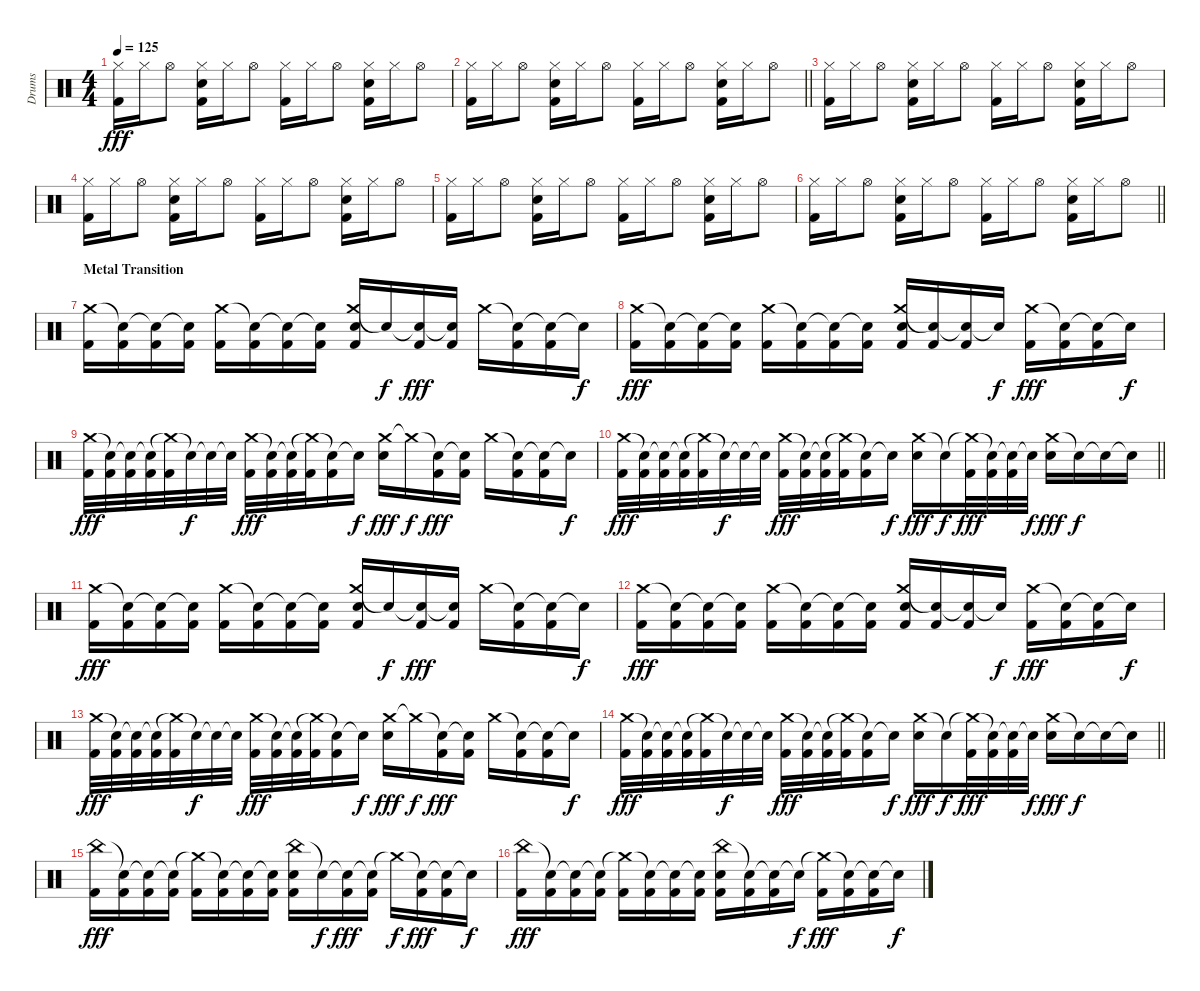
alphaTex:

\track ("Drums" "Drums") {instrument percussion}
\staff {score}
\articulation defaults
\ts (4 4)
\tempo 125
\clef neutral
\ks c
("Hi-Hat (closed)" "Kick (hit) 2").16{dy fff} "Hi-Hat (closed)".16 "Hi-Hat (open)".8 ("Hi-Hat (closed)" "Hand Clap (hit)" "Kick (hit) 2").16 "Hi-Hat (closed)".16 "Hi-Hat (open)".8 ("Hi-Hat (closed)" "Kick (hit) 2").16 "Hi-Hat (closed)".16 "Hi-Hat (open)".8 ("Hi-Hat (closed)" "Hand Clap (hit)" "Kick (hit) 2").16 "Hi-Hat (closed)".16 "Hi-Hat (open)".8 |
\barLineRight lightlight
("Hi-Hat (closed)" "Kick (hit) 2").16 "Hi-Hat (closed)".16 "Hi-Hat (open)".8 ("Hi-Hat (closed)" "Hand Clap (hit)" "Kick (hit) 2").16 "Hi-Hat (closed)".16 "Hi-Hat (open)".8 ("Hi-Hat (closed)" "Kick (hit) 2").16 "Hi-Hat (closed)".16 "Hi-Hat (open)".8 ("Hi-Hat (closed)" "Hand Clap (hit)" "Kick (hit) 2").16 "Hi-Hat (closed)".16 "Hi-Hat (open)".8 |
("Hi-Hat (closed)" "Kick (hit) 2").16 "Hi-Hat (closed)".16 "Hi-Hat (open)".8 ("Hi-Hat (closed)" "Hand Clap (hit)" "Kick (hit) 2").16 "Hi-Hat (closed)".16 "Hi-Hat (open)".8 ("Hi-Hat (closed)" "Kick (hit) 2").16 "Hi-Hat (closed)".16 "Hi-Hat (open)".8 ("Hi-Hat (closed)" "Hand Clap (hit)" "Kick (hit) 2").16 "Hi-Hat (closed)".16 "Hi-Hat (open)".8 |
("Hi-Hat (closed)" "Kick (hit) 2").16 "Hi-Hat (closed)".16 "Hi-Hat (open)".8 ("Hi-Hat (closed)" "Hand Clap (hit)" "Kick (hit) 2").16 "Hi-Hat (closed)".16 "Hi-Hat (open)".8 ("Hi-Hat (closed)" "Kick (hit) 2").16 "Hi-Hat (closed)".16 "Hi-Hat (open)".8 ("Hi-Hat (closed)" "Hand Clap (hit)" "Kick (hit) 2").16 "Hi-Hat (closed)".16 "Hi-Hat (open)".8 |
("Hi-Hat (closed)" "Kick (hit) 2").16 "Hi-Hat (closed)".16 "Hi-Hat (open)".8 ("Hi-Hat (closed)" "Hand Clap (hit)" "Kick (hit) 2").16 "Hi-Hat (closed)".16 "Hi-Hat (open)".8 ("Hi-Hat (closed)" "Kick (hit) 2").16 "Hi-Hat (closed)".16 "Hi-Hat (open)".8 ("Hi-Hat (closed)" "Hand Clap (hit)" "Kick (hit) 2").16 "Hi-Hat (closed)".16 "Hi-Hat (open)".8 |
\barLineRight lightlight
("Hi-Hat (closed)" "Kick (hit) 2").16 "Hi-Hat (closed)".16 "Hi-Hat (open)".8 ("Hi-Hat (closed)" "Hand Clap (hit)" "Kick (hit) 2").16 "Hi-Hat (closed)".16 "Hi-Hat (open)".8 ("Hi-Hat (closed)" "Kick (hit) 2").16 "Hi-Hat (closed)".16 "Hi-Hat (open)".8 ("Hi-Hat (closed)" "Hand Clap (hit)" "Kick (hit) 2").16 "Hi-Hat (closed)".16 "Hi-Hat (open)".8 |
\section ("" "Metal Transition")
("Crash medium (hit)" "Kick (hit) 2").16 ("Snare (hit)"{t} "Kick (hit) 2").16 ("Snare (hit)"{t} "Kick (hit) 2").16 ("Snare (hit)"{t} "Kick (hit) 2").16 ("Crash medium (hit)" "Kick (hit) 2").16 ("Snare (hit)"{t} "Kick (hit) 2").16 ("Snare (hit)"{t} "Kick (hit) 2").16 ("Snare (hit)"{t} "Kick (hit) 2").16 ("Crash medium (hit)" "Electric Snare (hit)" "Kick (hit) 2").16 "Snare (hit)"{t}.16{dy f} ("Snare (hit)"{t} "Kick (hit) 2").16{dy fff} ("Snare (hit)"{t} "Kick (hit) 2").16 "Crash medium (hit)".16 ("Snare (hit)"{t} "Kick (hit) 2").16 ("Snare (hit)"{t} "Kick (hit) 2").16 "Snare (hit)"{t}.16{dy f} |
("Crash medium (hit)" "Kick (hit) 2").16{dy fff} ("Snare (hit)"{t} "Kick (hit) 2").16 ("Snare (hit)"{t} "Kick (hit) 2").16 ("Snare (hit)"{t} "Kick (hit) 2").16 ("Crash medium (hit)" "Kick (hit) 2").16 ("Snare (hit)"{t} "Kick (hit) 2").16 ("Snare (hit)"{t} "Kick (hit) 2").16 ("Snare (hit)"{t} "Kick (hit) 2").16 ("Crash medium (hit)" "Electric Snare (hit)" "Kick (hit) 2").16 ("Snare (hit)"{t} "Kick (hit) 2").16 ("Snare (hit)"{t} "Kick (hit) 2").16 "Snare (hit)"{t}.16{dy f} ("Crash medium (hit)" "Kick (hit) 2").16{dy fff} ("Snare (hit)"{t} "Kick (hit) 2").16 ("Snare (hit)"{t} "Kick (hit) 2").16 "Snare (hit)"{t}.16{dy f} |
("Crash medium (hit)" "Kick (hit) 2").32{dy fff} ("Snare (hit)"{t} "Kick (hit) 2").32 ("Snare (hit)"{t} "Kick (hit) 2").32 ("Snare (hit)"{t} "Kick (hit) 2").32 ("Crash medium (hit)"{t} "Kick (hit) 2").32 "Snare (hit)"{t}.32{dy f} "Snare (hit)"{t}.32 "Snare (hit)"{t}.32 ("Crash medium (hit)" "Kick (hit) 2").32{dy fff} ("Snare (hit)"{t} "Kick (hit) 2").32 ("Snare (hit)"{t} "Kick (hit) 2").32 ("Crash medium (hit)"{t} "Kick (hit) 2").32 ("Snare (hit)"{t} "Kick (hit) 2").16 "Snare (hit)"{t}.16{dy f} ("Crash medium (hit)" "Electric Snare (hit)").16{dy fff} "Crash medium (hit)"{t}.16{dy f} ("Snare (hit)"{t} "Kick (hit) 2").16{dy fff} ("Snare (hit)"{t} "Kick (hit) 2").16 "Crash medium (hit)".16 ("Snare (hit)"{t} "Kick (hit) 2").16 ("Snare (hit)"{t} "Kick (hit) 2").16 "Snare (hit)"{t}.16{dy f} |
\barLineRight lightlight
("Crash medium (hit)" "Kick (hit) 2").32{dy fff} ("Snare (hit)"{t} "Kick (hit) 2").32 ("Snare (hit)"{t} "Kick (hit) 2").32 ("Snare (hit)"{t} "Kick (hit) 2").32 ("Crash medium (hit)"{t} "Kick (hit) 2").32 "Snare (hit)"{t}.32{dy f} "Snare (hit)"{t}.32 "Snare (hit)"{t}.32 ("Crash medium (hit)" "Kick (hit) 2").32{dy fff} ("Snare (hit)"{t} "Kick (hit) 2").32 ("Snare (hit)"{t} "Kick (hit) 2").32 ("Crash medium (hit)"{t} "Kick (hit) 2").32 ("Snare (hit)"{t} "Kick (hit) 2").16 "Snare (hit)"{t}.16{dy f} ("Crash medium (hit)" "Electric Snare (hit)").16{dy fff} "Snare (hit)"{t}.16{dy f} ("Crash medium (hit)"{t} "Kick (hit) 2").32{dy fff} ("Snare (hit)"{t} "Kick (hit) 2").32 ("Snare (hit)"{t} "Kick (hit) 2").32 "Snare (hit)"{t}.32{dy f} ("Crash medium (hit)" "Electric Snare (hit)").16{dy fff} "Snare (hit)"{t}.16{dy f} "Snare (hit)"{t}.16 "Snare (hit)"{t}.16 |
("Crash medium (hit)" "Kick (hit) 2").16{dy fff} ("Snare (hit)"{t} "Kick (hit) 2").16 ("Snare (hit)"{t} "Kick (hit) 2").16 ("Snare (hit)"{t} "Kick (hit) 2").16 ("Crash medium (hit)" "Kick (hit) 2").16 ("Snare (hit)"{t} "Kick (hit) 2").16 ("Snare (hit)"{t} "Kick (hit) 2").16 ("Snare (hit)"{t} "Kick (hit) 2").16 ("Crash medium (hit)" "Electric Snare (hit)" "Kick (hit) 2").16 "Snare (hit)"{t}.16{dy f} ("Snare (hit)"{t} "Kick (hit) 2").16{dy fff} ("Snare (hit)"{t} "Kick (hit) 2").16 "Crash medium (hit)".16 ("Snare (hit)"{t} "Kick (hit) 2").16 ("Snare (hit)"{t} "Kick (hit) 2").16 "Snare (hit)"{t}.16{dy f} |
("Crash medium (hit)" "Kick (hit) 2").16{dy fff} ("Snare (hit)"{t} "Kick (hit) 2").16 ("Snare (hit)"{t} "Kick (hit) 2").16 ("Snare (hit)"{t} "Kick (hit) 2").16 ("Crash medium (hit)" "Kick (hit) 2").16 ("Snare (hit)"{t} "Kick (hit) 2").16 ("Snare (hit)"{t} "Kick (hit) 2").16 ("Snare (hit)"{t} "Kick (hit) 2").16 ("Crash medium (hit)" "Electric Snare (hit)" "Kick (hit) 2").16 ("Snare (hit)"{t} "Kick (hit) 2").16 ("Snare (hit)"{t} "Kick (hit) 2").16 "Snare (hit)"{t}.16{dy f} ("Crash medium (hit)" "Kick (hit) 2").16{dy fff} ("Snare (hit)"{t} "Kick (hit) 2").16 ("Snare (hit)"{t} "Kick (hit) 2").16 "Snare (hit)"{t}.16{dy f} |
("Crash medium (hit)" "Kick (hit) 2").32{dy fff} ("Snare (hit)"{t} "Kick (hit) 2").32 ("Snare (hit)"{t} "Kick (hit) 2").32 ("Snare (hit)"{t} "Kick (hit) 2").32 ("Crash medium (hit)"{t} "Kick (hit) 2").32 "Snare (hit)"{t}.32{dy f} "Snare (hit)"{t}.32 "Snare (hit)"{t}.32 ("Crash medium (hit)" "Kick (hit) 2").32{dy fff} ("Snare (hit)"{t} "Kick (hit) 2").32 ("Snare (hit)"{t} "Kick (hit) 2").32 ("Crash medium (hit)"{t} "Kick (hit) 2").32 ("Snare (hit)"{t} "Kick (hit) 2").16 "Snare (hit)"{t}.16{dy f} ("Crash medium (hit)" "Electric Snare (hit)").16{dy fff} "Crash medium (hit)"{t}.16{dy f} ("Snare (hit)"{t} "Kick (hit) 2").16{dy fff} ("Snare (hit)"{t} "Kick (hit) 2").16 "Crash medium (hit)".16 ("Snare (hit)"{t} "Kick (hit) 2").16 ("Snare (hit)"{t} "Kick (hit) 2").16 "Snare (hit)"{t}.16{dy f} |
\barLineRight lightlight
("Crash medium (hit)" "Kick (hit) 2").32{dy fff} ("Snare (hit)"{t} "Kick (hit) 2").32 ("Snare (hit)"{t} "Kick (hit) 2").32 ("Snare (hit)"{t} "Kick (hit) 2").32 ("Crash medium (hit)"{t} "Kick (hit) 2").32 "Snare (hit)"{t}.32{dy f} "Snare (hit)"{t}.32 "Snare (hit)"{t}.32 ("Crash medium (hit)" "Kick (hit) 2").32{dy fff} ("Snare (hit)"{t} "Kick (hit) 2").32 ("Snare (hit)"{t} "Kick (hit) 2").32 ("Crash medium (hit)"{t} "Kick (hit) 2").32 ("Snare (hit)"{t} "Kick (hit) 2").16 "Snare (hit)"{t}.16{dy f} ("Crash medium (hit)" "Electric Snare (hit)").16{dy fff} "Snare (hit)"{t}.16{dy f} ("Crash medium (hit)"{t} "Kick (hit) 2").32{dy fff} ("Snare (hit)"{t} "Kick (hit) 2").32 ("Snare (hit)"{t} "Kick (hit) 2").32 "Snare (hit)"{t}.32{dy f} ("Crash medium (hit)" "Electric Snare (hit)").16{dy fff} "Snare (hit)"{t}.16{dy f} "Snare (hit)"{t}.16 "Snare (hit)"{t}.16 |
("China (hit)" "Kick (hit) 2").16{dy fff} ("Snare (hit)"{t} "Kick (hit) 2").16 ("Snare (hit)"{t} "Kick (hit) 2").16 ("Snare (hit)"{t} "Kick (hit) 2").16 ("Crash medium (hit)"{t} "Kick (hit) 2").16 ("Snare (hit)"{t} "Kick (hit) 2").16 ("Snare (hit)"{t} "Kick (hit) 2").16 ("Snare (hit)"{t} "Kick (hit) 2").16 ("China (hit)" "Electric Snare (hit)" "Kick (hit) 2").16 "Snare (hit)"{t}.16{dy f} ("Snare (hit)"{t} "Kick (hit) 2").16{dy fff} ("Snare (hit)"{t} "Kick (hit) 2").16 "Crash medium (hit)"{t}.16{dy f} ("Snare (hit)"{t} "Kick (hit) 2").16{dy fff} ("Snare (hit)"{t} "Kick (hit) 2").16 "Snare (hit)"{t}.16{dy f} |
("China (hit)" "Kick (hit) 2").16{dy fff} ("Snare (hit)"{t} "Kick (hit) 2").16 ("Snare (hit)"{t} "Kick (hit) 2").16 ("Snare (hit)"{t} "Kick (hit) 2").16 ("Crash medium (hit)"{t} "Kick (hit) 2").16 ("Snare (hit)"{t} "Kick (hit) 2").16 ("Snare (hit)"{t} "Kick (hit) 2").16 ("Snare (hit)"{t} "Kick (hit) 2").16 ("China (hit)" "Electric Snare (hit)" "Kick (hit) 2").16 ("Snare (hit)"{t} "Kick (hit) 2").16 ("Snare (hit)"{t} "Kick (hit) 2").16 "Snare (hit)"{t}.16{dy f} ("Crash medium (hit)"{t} "Kick (hit) 2").16{dy fff} ("Snare (hit)"{t} "Kick (hit) 2").16 ("Snare (hit)"{t} "Kick (hit) 2").16 "Snare (hit)"{t}.16{dy f}
